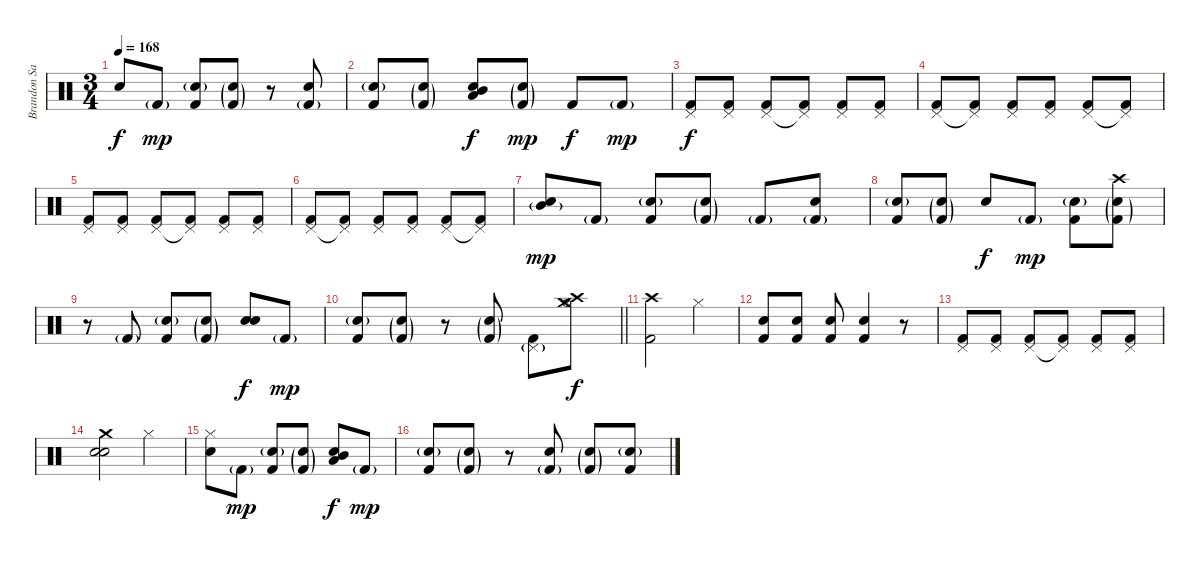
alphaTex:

\track ("Brandon Saller" "Brandon Sa") {instrument percussion}
\staff {score}
\articulation defaults
\ts (3 4)
\tempo 168
\clef neutral
\ks c "Snare (hit) 2".8{dy f} "Kick (hit) 2"{g}.8{dy mp}
("Snare (hit)"{g} "Kick (hit) 2").8 ("Snare (hit)"{g} "Kick (hit) 2"{g}).8 r.8 ("Electric Snare (hit)" "Kick (hit) 2"{g}).8 |
("Snare (hit)"{g} "Kick (hit) 2").8 ("Snare (hit)"{g} "Kick (hit) 2"{g}).8 ("Snare (hit) 2" "Low Tom (hit)" "Mid Tom (hit)").8{dy f} ("Snare (hit)"{g} "Kick (hit) 2"{g}).8{dy mp} "Kick (hit) 2".8{dy f} "Kick (hit) 2"{g}.8{dy mp} |
("Pedal Hi-Hat (hit)" "Kick (hit) 2").8{dy f} ("Pedal Hi-Hat (hit)" "Kick (hit) 2").8 ("Pedal Hi-Hat (hit)" "Kick (hit) 2").8 ("Pedal Hi-Hat (hit)"{t} "Kick (hit) 2").8 ("Pedal Hi-Hat (hit)" "Kick (hit) 2").8 ("Pedal Hi-Hat (hit)" "Kick (hit) 2").8 |
("Pedal Hi-Hat (hit)" "Kick (hit) 2").8 ("Pedal Hi-Hat (hit)"{t} "Kick (hit) 2").8 ("Pedal Hi-Hat (hit)" "Kick (hit) 2").8 ("Pedal Hi-Hat (hit)" "Kick (hit) 2").8 ("Pedal Hi-Hat (hit)" "Kick (hit) 2").8 ("Pedal Hi-Hat (hit)"{t} "Kick (hit) 2").8 |
("Pedal Hi-Hat (hit)" "Kick (hit) 2").8 ("Pedal Hi-Hat (hit)" "Kick (hit) 2").8 ("Pedal Hi-Hat (hit)" "Kick (hit) 2").8 ("Pedal Hi-Hat (hit)"{t} "Kick (hit) 2").8 ("Pedal Hi-Hat (hit)" "Kick (hit) 2").8 ("Pedal Hi-Hat (hit)" "Kick (hit) 2").8 |
("Pedal Hi-Hat (hit)" "Kick (hit) 2").8 ("Pedal Hi-Hat (hit)"{t} "Kick (hit) 2").8 ("Pedal Hi-Hat (hit)" "Kick (hit) 2").8 ("Pedal Hi-Hat (hit)" "Kick (hit) 2").8 ("Pedal Hi-Hat (hit)" "Kick (hit) 2").8 ("Pedal Hi-Hat (hit)"{t} "Kick (hit) 2").8 |
("Snare (hit) 2" "Mid Tom (hit)"{g}).8{dy mp} "Kick (hit) 2"{g}.8 ("Snare (hit)"{g} "Kick (hit) 2").8 ("Snare (hit)"{g} "Kick (hit) 2"{g}).8 "Kick (hit) 2"{g}.8 ("Electric Snare (hit)" "Kick (hit) 2"{g}).8 |
("Snare (hit)"{g} "Kick (hit) 2").8 ("Snare (hit)"{g} "Kick (hit) 2"{g}).8 "Electric Snare (hit)".8{dy f} "Kick (hit) 2"{g}.8{dy mp} ("Snare (hit)"{g} "Kick (hit) 2").8 ("Crash high (hit)" "Snare (hit)"{g} "Kick (hit) 2"{g}).8 |
r.8 "Kick (hit) 2"{g}.8 ("Snare (hit)"{g} "Kick (hit) 2").8 ("Snare (hit)"{g} "Kick (hit) 2"{g}).8 ("Snare (hit) 2" "Electric Snare (hit)").8{dy f} "Kick (hit) 2"{g}.8{dy mp} |
\barLineRight lightlight
("Snare (hit)"{g} "Kick (hit) 2").8 ("Snare (hit)"{g} "Kick (hit) 2"{g}).8 r.8 ("Snare (hit)"{g} "Kick (hit) 2"{g}).8 ("Pedal Hi-Hat (hit)"{g} "Kick (hit) 2").8 ("Crash medium (hit)" "Crash high (hit)" "Hi-Hat (open)").8{dy f} |
("Crash high (hit)" "Kick (hit) 2").2 "Hi-Hat (closed)".4 |
("Electric Snare (hit)" "Kick (hit) 2").8 ("Electric Snare (hit)" "Kick (hit) 2").8 ("Snare (hit) 2" "Kick (hit) 2").8 ("Electric Snare (hit)" "Kick (hit) 2").4 r.8 |
("Pedal Hi-Hat (hit)" "Kick (hit) 2").8 ("Pedal Hi-Hat (hit)" "Kick (hit) 2").8 ("Pedal Hi-Hat (hit)" "Kick (hit) 2").8 ("Pedal Hi-Hat (hit)"{t} "Kick (hit) 2").8 ("Pedal Hi-Hat (hit)" "Kick (hit) 2").8 ("Pedal Hi-Hat (hit)" "Kick (hit) 2").8 |
("Crash medium (hit)" "Electric Snare (hit)" "Snare (hit) 2").2 "Hi-Hat (closed)".4 |
("Snare (hit) 2" "Hi-Hat (closed)").8 "Kick (hit) 2"{g}.8{dy mp} ("Snare (hit)"{g} "Kick (hit) 2").8 ("Snare (hit)"{g} "Kick (hit) 2"{g}).8 ("Snare (hit) 2" "Low Tom (hit)" "Mid Tom (hit)").8{dy f} "Kick (hit) 2"{g}.8{dy mp} |
("Snare (hit)"{g} "Kick (hit) 2").8 ("Snare (hit)"{g} "Kick (hit) 2"{g}).8 r.8 ("Electric Snare (hit)" "Kick (hit) 2"{g}).8 ("Snare (hit)"{g} "Kick (hit) 2"{g}).8 ("Snare (hit)"{g} "Kick (hit) 2").8
